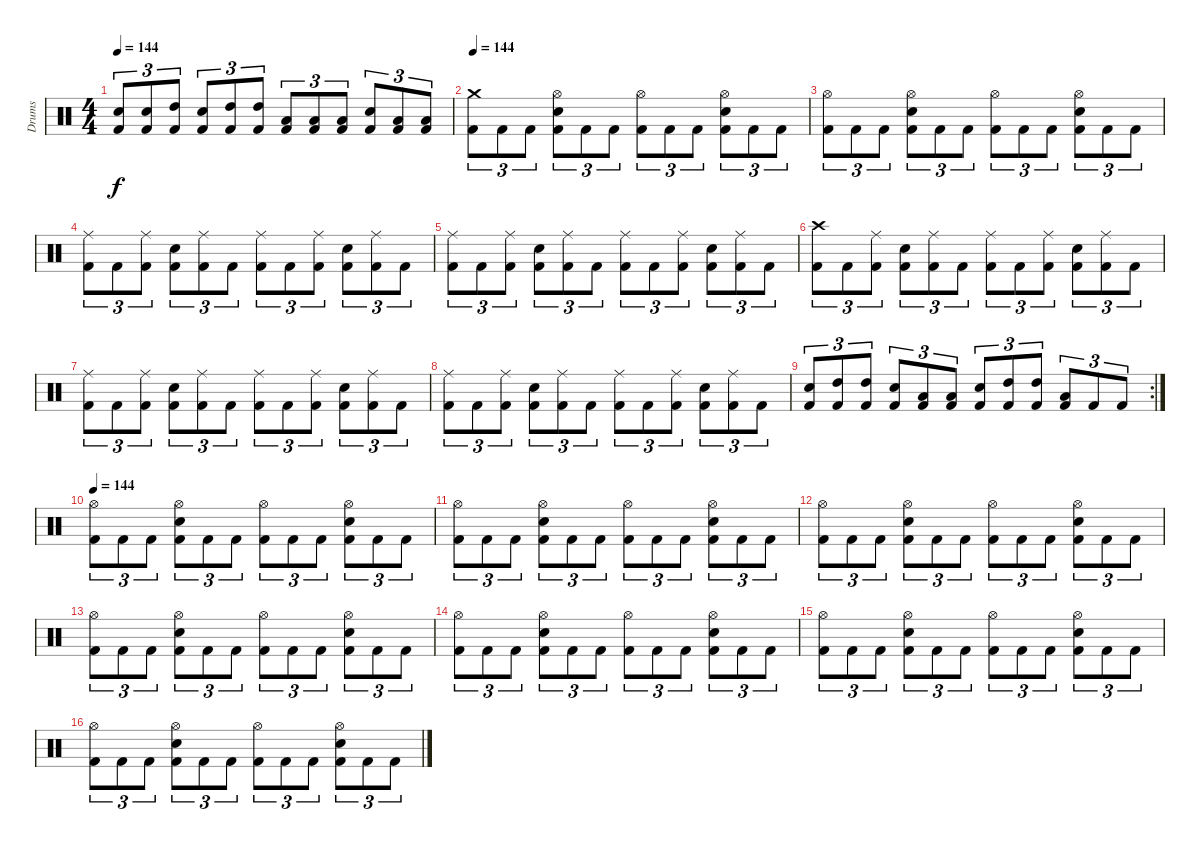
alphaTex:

\track ("Drums" "Drums") {instrument percussion}
\staff {score}
\articulation defaults
\ts (4 4)
\tempo 144
\clef neutral
\ks c
("Snare (hit) 2" "Kick (hit) 2").8{tu (3 2) dy f} ("Snare (hit) 2" "Kick (hit) 2").8{tu (3 2)} ("High Tom (hit)" "Kick (hit) 2").8{tu (3 2)} ("Snare (hit) 2" "Kick (hit) 2").8{tu (3 2)} ("High Tom (hit)" "Kick (hit) 2").8{tu (3 2)} ("High Tom (hit)" "Kick (hit) 2").8{tu (3 2)} ("Low Tom (hit)" "Kick (hit) 2").8{tu (3 2)} ("Low Tom (hit)" "Kick (hit) 2").8{tu (3 2)} ("Low Tom (hit)" "Kick (hit) 2").8{tu (3 2)} ("Snare (hit) 2" "Kick (hit) 2").8{tu (3 2)} ("Low Tom (hit)" "Kick (hit) 2").8{tu (3 2)} ("Low Tom (hit)" "Kick (hit) 2").8{tu (3 2)} |
\tempo 144
("Crash medium (hit)" "Kick (hit) 2").8{tu (3 2)} "Kick (hit) 2".8{tu (3 2)} "Kick (hit) 2".8{tu (3 2)} ("Hi-Hat (open)" "Snare (hit) 2" "Kick (hit) 2").8{tu (3 2)} "Kick (hit) 2".8{tu (3 2)} "Kick (hit) 2".8{tu (3 2)} ("Hi-Hat (open)" "Kick (hit) 2").8{tu (3 2)} "Kick (hit) 2".8{tu (3 2)} "Kick (hit) 2".8{tu (3 2)} ("Hi-Hat (open)" "Snare (hit) 2" "Kick (hit) 2").8{tu (3 2)} "Kick (hit) 2".8{tu (3 2)} "Kick (hit) 2".8{tu (3 2)} |
("Hi-Hat (open)" "Kick (hit) 2").8{tu (3 2)} "Kick (hit) 2".8{tu (3 2)} "Kick (hit) 2".8{tu (3 2)} ("Hi-Hat (open)" "Snare (hit) 2" "Kick (hit) 2").8{tu (3 2)} "Kick (hit) 2".8{tu (3 2)} "Kick (hit) 2".8{tu (3 2)} ("Hi-Hat (open)" "Kick (hit) 2").8{tu (3 2)} "Kick (hit) 2".8{tu (3 2)} "Kick (hit) 2".8{tu (3 2)} ("Hi-Hat (open)" "Snare (hit) 2" "Kick (hit) 2").8{tu (3 2)} "Kick (hit) 2".8{tu (3 2)} "Kick (hit) 2".8{tu (3 2)} |
("Ride (middle)" "Kick (hit) 2").8{tu (3 2)} "Kick (hit) 2".8{tu (3 2)} ("Ride (middle)" "Kick (hit) 2").8{tu (3 2)} ("Snare (hit) 2" "Kick (hit) 2").8{tu (3 2)} ("Ride (middle)" "Kick (hit) 2").8{tu (3 2)} "Kick (hit) 2".8{tu (3 2)} ("Ride (middle)" "Kick (hit) 2").8{tu (3 2)} "Kick (hit) 2".8{tu (3 2)} ("Ride (middle)" "Kick (hit) 2").8{tu (3 2)} ("Snare (hit) 2" "Kick (hit) 2").8{tu (3 2)} ("Ride (middle)" "Kick (hit) 2").8{tu (3 2)} "Kick (hit) 2".8{tu (3 2)} |
("Ride (middle)" "Kick (hit) 2").8{tu (3 2)} "Kick (hit) 2".8{tu (3 2)} ("Ride (middle)" "Kick (hit) 2").8{tu (3 2)} ("Snare (hit) 2" "Kick (hit) 2").8{tu (3 2)} ("Ride (middle)" "Kick (hit) 2").8{tu (3 2)} "Kick (hit) 2".8{tu (3 2)} ("Ride (middle)" "Kick (hit) 2").8{tu (3 2)} "Kick (hit) 2".8{tu (3 2)} ("Ride (middle)" "Kick (hit) 2").8{tu (3 2)} ("Snare (hit) 2" "Kick (hit) 2").8{tu (3 2)} ("Ride (middle)" "Kick (hit) 2").8{tu (3 2)} "Kick (hit) 2".8{tu (3 2)} |
("Crash high (hit)" "Kick (hit) 2").8{tu (3 2)} "Kick (hit) 2".8{tu (3 2)} ("Ride (middle)" "Kick (hit) 2").8{tu (3 2)} ("Snare (hit) 2" "Kick (hit) 2").8{tu (3 2)} ("Ride (middle)" "Kick (hit) 2").8{tu (3 2)} "Kick (hit) 2".8{tu (3 2)} ("Ride (middle)" "Kick (hit) 2").8{tu (3 2)} "Kick (hit) 2".8{tu (3 2)} ("Ride (middle)" "Kick (hit) 2").8{tu (3 2)} ("Snare (hit) 2" "Kick (hit) 2").8{tu (3 2)} ("Ride (middle)" "Kick (hit) 2").8{tu (3 2)} "Kick (hit) 2".8{tu (3 2)} |
("Ride (middle)" "Kick (hit) 2").8{tu (3 2)} "Kick (hit) 2".8{tu (3 2)} ("Ride (middle)" "Kick (hit) 2").8{tu (3 2)} ("Snare (hit) 2" "Kick (hit) 2").8{tu (3 2)} ("Ride (middle)" "Kick (hit) 2").8{tu (3 2)} "Kick (hit) 2".8{tu (3 2)} ("Ride (middle)" "Kick (hit) 2").8{tu (3 2)} "Kick (hit) 2".8{tu (3 2)} ("Ride (middle)" "Kick (hit) 2").8{tu (3 2)} ("Snare (hit) 2" "Kick (hit) 2").8{tu (3 2)} ("Ride (middle)" "Kick (hit) 2").8{tu (3 2)} "Kick (hit) 2".8{tu (3 2)} |
("Ride (middle)" "Kick (hit) 2").8{tu (3 2)} "Kick (hit) 2".8{tu (3 2)} ("Ride (middle)" "Kick (hit) 2").8{tu (3 2)} ("Snare (hit) 2" "Kick (hit) 2").8{tu (3 2)} ("Ride (middle)" "Kick (hit) 2").8{tu (3 2)} "Kick (hit) 2".8{tu (3 2)} ("Ride (middle)" "Kick (hit) 2").8{tu (3 2)} "Kick (hit) 2".8{tu (3 2)} ("Ride (middle)" "Kick (hit) 2").8{tu (3 2)} ("Snare (hit) 2" "Kick (hit) 2").8{tu (3 2)} ("Ride (middle)" "Kick (hit) 2").8{tu (3 2)} "Kick (hit) 2".8{tu (3 2)} |
\rc 2
("Snare (hit) 2" "Kick (hit) 2").8{tu (3 2)} ("High Tom (hit)" "Kick (hit) 2").8{tu (3 2)} ("High Tom (hit)" "Kick (hit) 2").8{tu (3 2)} ("Snare (hit) 2" "Kick (hit) 2").8{tu (3 2)} ("Low Tom (hit)" "Kick (hit) 2").8{tu (3 2)} ("Low Tom (hit)" "Kick (hit) 2").8{tu (3 2)} ("Snare (hit) 2" "Kick (hit) 2").8{tu (3 2)} ("High Tom (hit)" "Kick (hit) 2").8{tu (3 2)} ("High Tom (hit)" "Kick (hit) 2").8{tu (3 2)} ("Low Tom (hit)" "Kick (hit) 2").8{tu (3 2)} "Kick (hit) 2".8{tu (3 2)} "Kick (hit) 2".8{tu (3 2)} |
\tempo 144
("Hi-Hat (open)" "Kick (hit) 2").8{tu (3 2)} "Kick (hit) 2".8{tu (3 2)} "Kick (hit) 2".8{tu (3 2)} ("Hi-Hat (open)" "Snare (hit) 2" "Kick (hit) 2").8{tu (3 2)} "Kick (hit) 2".8{tu (3 2)} "Kick (hit) 2".8{tu (3 2)} ("Hi-Hat (open)" "Kick (hit) 2").8{tu (3 2)} "Kick (hit) 2".8{tu (3 2)} "Kick (hit) 2".8{tu (3 2)} ("Hi-Hat (open)" "Snare (hit) 2" "Kick (hit) 2").8{tu (3 2)} "Kick (hit) 2".8{tu (3 2)} "Kick (hit) 2".8{tu (3 2)} |
("Hi-Hat (open)" "Kick (hit) 2").8{tu (3 2)} "Kick (hit) 2".8{tu (3 2)} "Kick (hit) 2".8{tu (3 2)} ("Hi-Hat (open)" "Snare (hit) 2" "Kick (hit) 2").8{tu (3 2)} "Kick (hit) 2".8{tu (3 2)} "Kick (hit) 2".8{tu (3 2)} ("Hi-Hat (open)" "Kick (hit) 2").8{tu (3 2)} "Kick (hit) 2".8{tu (3 2)} "Kick (hit) 2".8{tu (3 2)} ("Hi-Hat (open)" "Snare (hit) 2" "Kick (hit) 2").8{tu (3 2)} "Kick (hit) 2".8{tu (3 2)} "Kick (hit) 2".8{tu (3 2)} |
("Hi-Hat (open)" "Kick (hit) 2").8{tu (3 2)} "Kick (hit) 2".8{tu (3 2)} "Kick (hit) 2".8{tu (3 2)} ("Hi-Hat (open)" "Snare (hit) 2" "Kick (hit) 2").8{tu (3 2)} "Kick (hit) 2".8{tu (3 2)} "Kick (hit) 2".8{tu (3 2)} ("Hi-Hat (open)" "Kick (hit) 2").8{tu (3 2)} "Kick (hit) 2".8{tu (3 2)} "Kick (hit) 2".8{tu (3 2)} ("Hi-Hat (open)" "Snare (hit) 2" "Kick (hit) 2").8{tu (3 2)} "Kick (hit) 2".8{tu (3 2)} "Kick (hit) 2".8{tu (3 2)} |
("Hi-Hat (open)" "Kick (hit) 2").8{tu (3 2)} "Kick (hit) 2".8{tu (3 2)} "Kick (hit) 2".8{tu (3 2)} ("Hi-Hat (open)" "Snare (hit) 2" "Kick (hit) 2").8{tu (3 2)} "Kick (hit) 2".8{tu (3 2)} "Kick (hit) 2".8{tu (3 2)} ("Hi-Hat (open)" "Kick (hit) 2").8{tu (3 2)} "Kick (hit) 2".8{tu (3 2)} "Kick (hit) 2".8{tu (3 2)} ("Hi-Hat (open)" "Snare (hit) 2" "Kick (hit) 2").8{tu (3 2)} "Kick (hit) 2".8{tu (3 2)} "Kick (hit) 2".8{tu (3 2)} |
("Hi-Hat (open)" "Kick (hit) 2").8{tu (3 2)} "Kick (hit) 2".8{tu (3 2)} "Kick (hit) 2".8{tu (3 2)} ("Hi-Hat (open)" "Snare (hit) 2" "Kick (hit) 2").8{tu (3 2)} "Kick (hit) 2".8{tu (3 2)} "Kick (hit) 2".8{tu (3 2)} ("Hi-Hat (open)" "Kick (hit) 2").8{tu (3 2)} "Kick (hit) 2".8{tu (3 2)} "Kick (hit) 2".8{tu (3 2)} ("Hi-Hat (open)" "Snare (hit) 2" "Kick (hit) 2").8{tu (3 2)} "Kick (hit) 2".8{tu (3 2)} "Kick (hit) 2".8{tu (3 2)} |
("Hi-Hat (open)" "Kick (hit) 2").8{tu (3 2)} "Kick (hit) 2".8{tu (3 2)} "Kick (hit) 2".8{tu (3 2)} ("Hi-Hat (open)" "Snare (hit) 2" "Kick (hit) 2").8{tu (3 2)} "Kick (hit) 2".8{tu (3 2)} "Kick (hit) 2".8{tu (3 2)} ("Hi-Hat (open)" "Kick (hit) 2").8{tu (3 2)} "Kick (hit) 2".8{tu (3 2)} "Kick (hit) 2".8{tu (3 2)} ("Hi-Hat (open)" "Snare (hit) 2" "Kick (hit) 2").8{tu (3 2)} "Kick (hit) 2".8{tu (3 2)} "Kick (hit) 2".8{tu (3 2)} |
("Hi-Hat (open)" "Kick (hit) 2").8{tu (3 2)} "Kick (hit) 2".8{tu (3 2)} "Kick (hit) 2".8{tu (3 2)} ("Hi-Hat (open)" "Snare (hit) 2" "Kick (hit) 2").8{tu (3 2)} "Kick (hit) 2".8{tu (3 2)} "Kick (hit) 2".8{tu (3 2)} ("Hi-Hat (open)" "Kick (hit) 2").8{tu (3 2)} "Kick (hit) 2".8{tu (3 2)} "Kick (hit) 2".8{tu (3 2)} ("Hi-Hat (open)" "Snare (hit) 2" "Kick (hit) 2").8{tu (3 2)} "Kick (hit) 2".8{tu (3 2)} "Kick (hit) 2".8{tu (3 2)}
